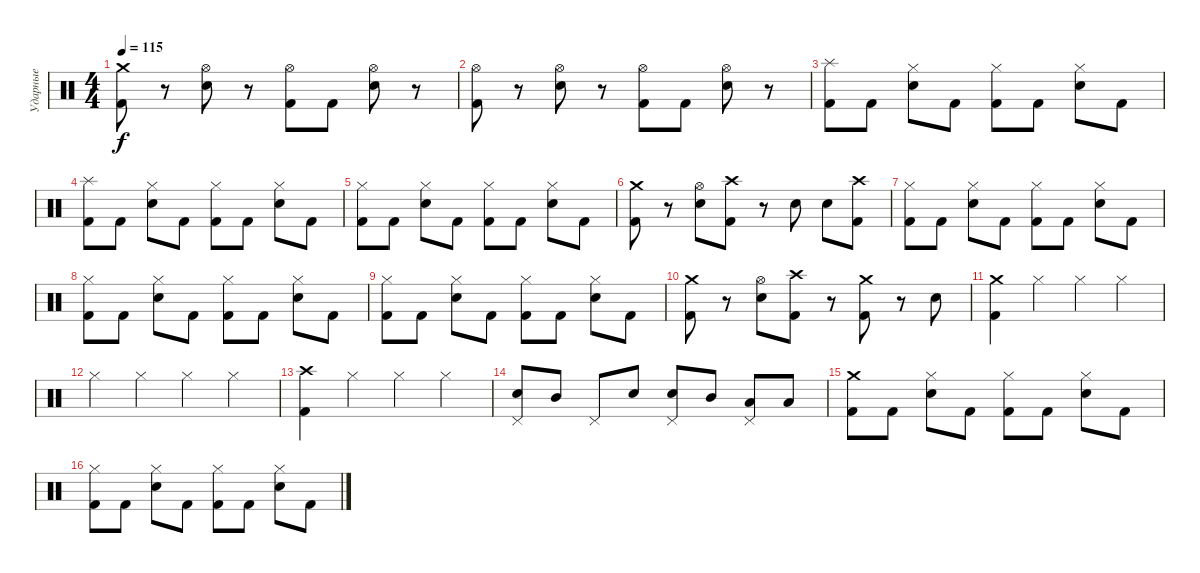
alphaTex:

\track ("Ударные" "Ударные") {instrument percussion}
\staff {score}
\articulation defaults
\ts (4 4)
\tempo 115
\clef neutral
\ks c
("Crash medium (hit)" "Kick (hit) 2").8{dy f} r.8 ("Hi-Hat (open)" "Electric Snare (hit)").8 r.8 ("Hi-Hat (open)" "Kick (hit) 2").8 "Kick (hit) 2".8 ("Hi-Hat (open)" "Electric Snare (hit)").8 r.8 |
("Hi-Hat (open)" "Kick (hit) 2").8 r.8 ("Hi-Hat (open)" "Electric Snare (hit)").8 r.8 ("Hi-Hat (open)" "Kick (hit) 2").8 "Kick (hit) 2".8 ("Hi-Hat (open)" "Electric Snare (hit)").8 r.8 |
("Splash (hit)" "Kick (hit) 2").8 "Kick (hit) 2".8 ("Hi-Hat (closed)" "Electric Snare (hit)").8 "Kick (hit) 2".8 ("Hi-Hat (closed)" "Kick (hit) 2").8 "Kick (hit) 2".8 ("Hi-Hat (closed)" "Electric Snare (hit)").8 "Kick (hit) 2".8 |
("Splash (hit)" "Kick (hit) 2").8 "Kick (hit) 2".8 ("Hi-Hat (closed)" "Electric Snare (hit)").8 "Kick (hit) 2".8 ("Hi-Hat (closed)" "Kick (hit) 2").8 "Kick (hit) 2".8 ("Hi-Hat (closed)" "Electric Snare (hit)").8 "Kick (hit) 2".8 |
("Hi-Hat (closed)" "Kick (hit) 2").8 "Kick (hit) 2".8 ("Hi-Hat (closed)" "Electric Snare (hit)").8 "Kick (hit) 2".8 ("Hi-Hat (closed)" "Kick (hit) 2").8 "Kick (hit) 2".8 ("Hi-Hat (closed)" "Electric Snare (hit)").8 "Kick (hit) 2".8 |
("Crash medium (hit)" "Kick (hit) 2").8 r.8 ("Hi-Hat (open)" "Electric Snare (hit)").8 ("Crash high (hit)" "Kick (hit) 2").8 r.8 "Electric Snare (hit)".8 "Electric Snare (hit)".8 ("Crash high (hit)" "Kick (hit) 2").8 |
("Hi-Hat (closed)" "Kick (hit) 2").8 "Kick (hit) 2".8 ("Hi-Hat (closed)" "Electric Snare (hit)").8 "Kick (hit) 2".8 ("Hi-Hat (closed)" "Kick (hit) 2").8 "Kick (hit) 2".8 ("Hi-Hat (closed)" "Electric Snare (hit)").8 "Kick (hit) 2".8 |
("Hi-Hat (closed)" "Kick (hit) 2").8 "Kick (hit) 2".8 ("Hi-Hat (closed)" "Electric Snare (hit)").8 "Kick (hit) 2".8 ("Hi-Hat (closed)" "Kick (hit) 2").8 "Kick (hit) 2".8 ("Hi-Hat (closed)" "Electric Snare (hit)").8 "Kick (hit) 2".8 |
("Hi-Hat (closed)" "Kick (hit) 2").8 "Kick (hit) 2".8 ("Hi-Hat (closed)" "Electric Snare (hit)").8 "Kick (hit) 2".8 ("Hi-Hat (closed)" "Kick (hit) 2").8 "Kick (hit) 2".8 ("Hi-Hat (closed)" "Electric Snare (hit)").8 "Kick (hit) 2".8 |
("Crash medium (hit)" "Kick (hit) 2").8 r.8 ("Hi-Hat (open)" "Electric Snare (hit)").8 ("Crash high (hit)" "Kick (hit) 2").8 r.8 ("Crash medium (hit)" "Kick (hit) 2").8 r.8 "Electric Snare (hit)".8 |
("Crash medium (hit)" "Kick (hit) 2").4 "Hi-Hat (closed)".4 "Hi-Hat (closed)".4 "Hi-Hat (closed)".4 |
"Hi-Hat (closed)".4 "Hi-Hat (closed)".4 "Hi-Hat (closed)".4 "Hi-Hat (closed)".4 |
("Crash high (hit)" "Kick (hit) 2").4 "Hi-Hat (closed)".4 "Hi-Hat (closed)".4 "Hi-Hat (closed)".4 |
("Pedal Hi-Hat (hit)" "Electric Snare (hit)").8 "Mid Tom (hit)".8 "Pedal Hi-Hat (hit)".8 "Electric Snare (hit)".8 ("Pedal Hi-Hat (hit)" "Electric Snare (hit)").8 "Mid Tom (hit)".8 ("Pedal Hi-Hat (hit)" "Low Tom (hit)").8 "Low Tom (hit)".8 |
("Crash medium (hit)" "Kick (hit) 2").8 "Kick (hit) 2".8 ("Hi-Hat (closed)" "Electric Snare (hit)").8 "Kick (hit) 2".8 ("Hi-Hat (closed)" "Kick (hit) 2").8 "Kick (hit) 2".8 ("Hi-Hat (closed)" "Electric Snare (hit)").8 "Kick (hit) 2".8 |
("Hi-Hat (closed)" "Kick (hit) 2").8 "Kick (hit) 2".8 ("Hi-Hat (closed)" "Electric Snare (hit)").8 "Kick (hit) 2".8 ("Hi-Hat (closed)" "Kick (hit) 2").8 "Kick (hit) 2".8 ("Hi-Hat (closed)" "Electric Snare (hit)").8 "Kick (hit) 2".8
